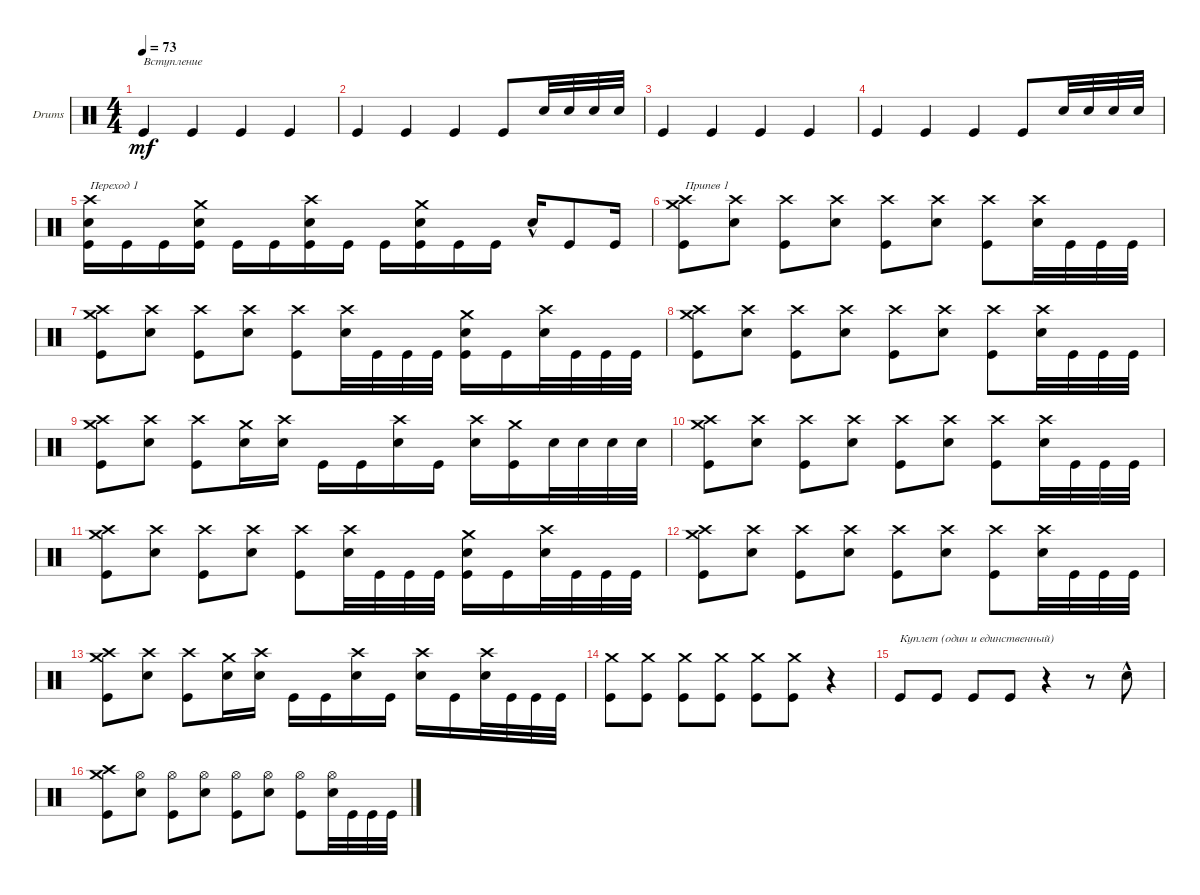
\defaultSystemsLayout 4
\bracketExtendMode groupsimilarinstruments
\firstSystemTrackNameOrientation horizontal
\otherSystemsTrackNameOrientation horizontal
\track ("Drumkit" "Drums") {instrument percussion}
\staff {score}
\articulation defaults
\ts (4 4)
\tempo 73
\clef neutral
\ks c "Kick (hit)".4{txt "Вступление" dy mf} "Kick (hit)".4 "Kick (hit)".4 "Kick (hit)".4
|
"Kick (hit)".4 "Kick (hit)".4 "Kick (hit)".4 "Kick (hit)".8 "Snare (hit) 2".32 "Snare (hit) 2".32 "Snare (hit) 2".32 "Snare (hit) 2".32 |
"Kick (hit)".4 "Kick (hit)".4 "Kick (hit)".4 "Kick (hit)".4 |
"Kick (hit)".4 "Kick (hit)".4 "Kick (hit)".4 "Kick (hit)".8 "Snare (hit) 2".32 "Snare (hit) 2".32 "Snare (hit) 2".32 "Snare (hit) 2".32 |
("Kick (hit)" "Snare (hit) 2" "Crash high (hit)").16{txt "Переход 1"} "Kick (hit)".16 "Kick (hit)".16 ("Kick (hit)" "Snare (hit) 2" "Crash medium (hit)").16 "Kick (hit)".16 "Kick (hit)".16 ("Kick (hit)" "Crash high (hit)" "Snare (hit) 2").16 "Kick (hit)".16 "Kick (hit)".16 ("Kick (hit)" "Snare (hit) 2" "Crash medium (hit)").16 "Kick (hit)".16 "Kick (hit)".16 "Snare (hit) 2"{hac}.16 "Kick (hit)".8 "Kick (hit)".16 |
("Crash high (hit)" "Kick (hit)" "Crash medium (hit)").8{txt "Припев 1"} ("Crash high (hit)" "Snare (hit) 2").8 ("Crash high (hit)" "Kick (hit)").8 ("Crash high (hit)" "Snare (hit) 2").8 ("Crash high (hit)" "Kick (hit)").8 ("Crash high (hit)" "Snare (hit) 2").8 ("Crash high (hit)" "Kick (hit)").8 ("Crash high (hit)" "Snare (hit) 2").32 "Kick (hit)".32 "Kick (hit)".32 "Kick (hit)".32 |
("Crash high (hit)" "Kick (hit)" "Crash medium (hit)").8 ("Crash high (hit)" "Snare (hit) 2").8 ("Crash high (hit)" "Kick (hit)").8 ("Crash high (hit)" "Snare (hit) 2").8 ("Crash high (hit)" "Kick (hit)").8 ("Crash high (hit)" "Snare (hit) 2").32 "Kick (hit)".32 "Kick (hit)".32 "Kick (hit)".32 ("Kick (hit)" "Crash medium (hit)" "Snare (hit) 2").16 "Kick (hit)".16 ("Crash high (hit)" "Snare (hit) 2").32 "Kick (hit)".32 "Kick (hit)".32 "Kick (hit)".32 |
("Crash high (hit)" "Kick (hit)" "Crash medium (hit)").8 ("Crash high (hit)" "Snare (hit) 2").8 ("Crash high (hit)" "Kick (hit)").8 ("Crash high (hit)" "Snare (hit) 2").8 ("Crash high (hit)" "Kick (hit)").8 ("Crash high (hit)" "Snare (hit) 2").8 ("Crash high (hit)" "Kick (hit)").8 ("Crash high (hit)" "Snare (hit) 2").32 "Kick (hit)".32 "Kick (hit)".32 "Kick (hit)".32 |
("Crash high (hit)" "Kick (hit)" "Crash medium (hit)").8 ("Crash high (hit)" "Snare (hit) 2").8 ("Crash high (hit)" "Kick (hit)").8 ("Snare (hit) 2" "Crash medium (hit)").16 ("Crash high (hit)" "Snare (hit) 2").16 "Kick (hit)".16 "Kick (hit)".16 ("Snare (hit) 2" "Crash high (hit)").16 "Kick (hit)".16 ("Crash high (hit)" "Snare (hit) 2").16 ("Kick (hit)" "Crash medium (hit)").16 "Snare (hit) 2".32 "Snare (hit) 2".32 "Snare (hit) 2".32 "Snare (hit) 2".32 |
("Crash high (hit)" "Kick (hit)" "Crash medium (hit)").8 ("Crash high (hit)" "Snare (hit) 2").8 ("Crash high (hit)" "Kick (hit)").8 ("Crash high (hit)" "Snare (hit) 2").8 ("Crash high (hit)" "Kick (hit)").8 ("Crash high (hit)" "Snare (hit) 2").8 ("Crash high (hit)" "Kick (hit)").8 ("Crash high (hit)" "Snare (hit) 2").32 "Kick (hit)".32 "Kick (hit)".32 "Kick (hit)".32 |
("Crash high (hit)" "Kick (hit)" "Crash medium (hit)").8 ("Crash high (hit)" "Snare (hit) 2").8 ("Crash high (hit)" "Kick (hit)").8 ("Crash high (hit)" "Snare (hit) 2").8 ("Crash high (hit)" "Kick (hit)").8 ("Crash high (hit)" "Snare (hit) 2").32 "Kick (hit)".32 "Kick (hit)".32 "Kick (hit)".32 ("Kick (hit)" "Crash medium (hit)" "Snare (hit) 2").16 "Kick (hit)".16 ("Crash high (hit)" "Snare (hit) 2").32 "Kick (hit)".32 "Kick (hit)".32 "Kick (hit)".32 |
("Crash high (hit)" "Kick (hit)" "Crash medium (hit)").8 ("Crash high (hit)" "Snare (hit) 2").8 ("Crash high (hit)" "Kick (hit)").8 ("Crash high (hit)" "Snare (hit) 2").8 ("Crash high (hit)" "Kick (hit)").8 ("Crash high (hit)" "Snare (hit) 2").8 ("Crash high (hit)" "Kick (hit)").8 ("Crash high (hit)" "Snare (hit) 2").32 "Kick (hit)".32 "Kick (hit)".32 "Kick (hit)".32 |
("Crash high (hit)" "Kick (hit)" "Crash medium (hit)").8 ("Crash high (hit)" "Snare (hit) 2").8 ("Crash high (hit)" "Kick (hit)").8 ("Snare (hit) 2" "Crash medium (hit)").16 ("Crash high (hit)" "Snare (hit) 2").16 "Kick (hit)".16 "Kick (hit)".16 ("Snare (hit) 2" "Crash high (hit)").16 "Kick (hit)".16 ("Crash high (hit)" "Snare (hit) 2").16 "Kick (hit)".16 ("Snare (hit) 2" "Crash high (hit)").32 "Kick (hit)".32 "Kick (hit)".32 "Kick (hit)".32 |
("Kick (hit)" "Crash medium (hit)").8 ("Kick (hit)" "Crash medium (hit)").8 ("Kick (hit)" "Crash medium (hit)").8 ("Kick (hit)" "Crash medium (hit)").8 ("Kick (hit)" "Crash medium (hit)").8 ("Kick (hit)" "Crash medium (hit)").8 r.4 |
"Kick (hit)".8{txt "Куплет (один и единственный)"} "Kick (hit)".8 "Kick (hit)".8 "Kick (hit)".8 r.4 r.8 "Snare (hit) 2"{hac}.8 |
("Crash medium (hit)" "Crash high (hit)" "Kick (hit)").8 ("Hi-Hat (open)" "Snare (hit) 2").8 ("Hi-Hat (open)" "Kick (hit)").8 ("Hi-Hat (open)" "Snare (hit) 2").8 ("Hi-Hat (open)" "Kick (hit)").8 ("Hi-Hat (open)" "Snare (hit) 2").8 ("Hi-Hat (open)" "Kick (hit)").8 ("Hi-Hat (open)" "Snare (hit) 2").32 "Kick (hit)".32 "Kick (hit)".32 "Kick (hit)".32
